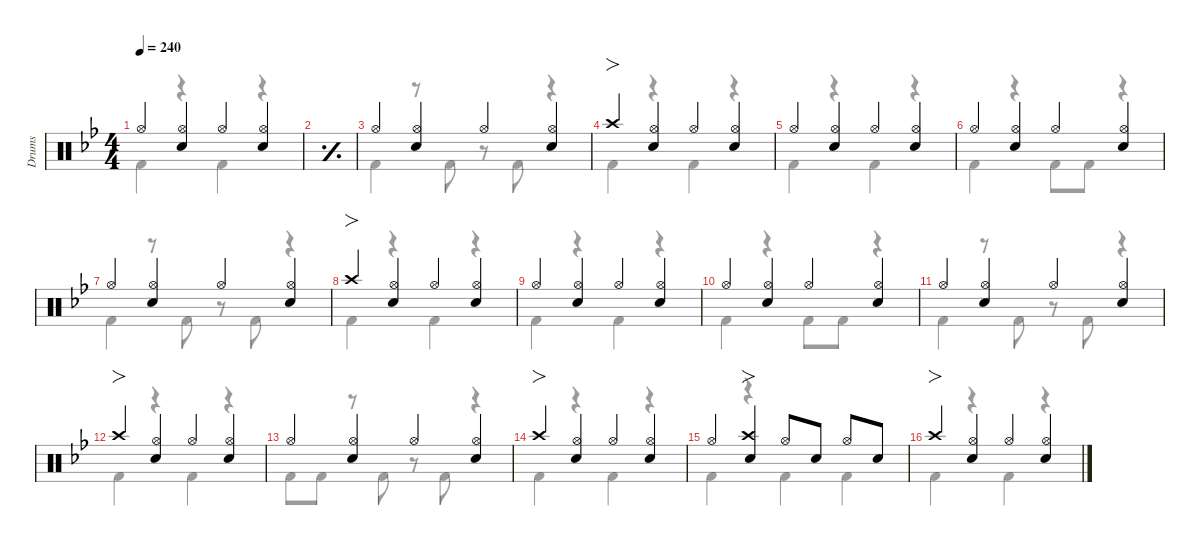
\defaultSystemsLayout 4
\hideDynamics
\bracketExtendMode nobrackets
\otherSystemsTrackNameOrientation horizontal
\track ("Drums" "Drums") {defaultSystemsLayout 4 instrument percussion}
\staff {score}
\articulation defaults
\voice
\ts (4 4)
\tempo 240
\clef neutral
\scale
0.976526
\ks bb "Hi-Hat (open)"{acc forcenatural}.4{dy f beam Up}
("Hi-Hat (open)"{acc forcenatural} "Snare (hit) 2"{acc forcenatural}).4{beam Up} "Hi-Hat (open)"{acc forcenatural}.4{beam Up} ("Hi-Hat (open)"{acc forcenatural} "Snare (hit) 2"{acc forcenatural}).4{beam Up} |
\simile simple
\scale
0.976526 |
\simile none
\scale
0.976526 "Hi-Hat (open)"{acc forcenatural}.4{beam Up} ("Hi-Hat (open)"{acc forcenatural} "Snare (hit) 2"{acc forcenatural}).4{beam Up} "Hi-Hat (open)"{acc forcenatural}.4{beam Up} ("Hi-Hat (open)"{acc forcenatural} "Snare (hit) 2"{acc forcenatural}).4{beam Up} |
\scale
1.07042 "Crash high (hit)"{acc forcenatural}.4{fo beam Up} ("Hi-Hat (open)"{acc forcenatural} "Snare (hit) 2"{acc forcenatural}).4{beam Up} "Hi-Hat (open)"{acc forcenatural}.4{beam Up} ("Hi-Hat (open)"{acc forcenatural} "Snare (hit) 2"{acc forcenatural}).4{beam Up} |
\scale
0.976526 "Hi-Hat (open)"{acc forcenatural}.4{beam Up} ("Hi-Hat (open)"{acc forcenatural} "Snare (hit) 2"{acc forcenatural}).4{beam Up} "Hi-Hat (open)"{acc forcenatural}.4{beam Up} ("Hi-Hat (open)"{acc forcenatural} "Snare (hit) 2"{acc forcenatural}).4{beam Up} |
\scale
0.976526 "Hi-Hat (open)"{acc forcenatural}.4{beam Up} ("Hi-Hat (open)"{acc forcenatural} "Snare (hit) 2"{acc forcenatural}).4{beam Up} "Hi-Hat (open)"{acc forcenatural}.4{beam Up} ("Hi-Hat (open)"{acc forcenatural} "Snare (hit) 2"{acc forcenatural}).4{beam Up} |
\scale
0.976526 "Hi-Hat (open)"{acc forcenatural}.4{beam Up} ("Hi-Hat (open)"{acc forcenatural} "Snare (hit) 2"{acc forcenatural}).4{beam Up} "Hi-Hat (open)"{acc forcenatural}.4{beam Up} ("Hi-Hat (open)"{acc forcenatural} "Snare (hit) 2"{acc forcenatural}).4{beam Up} |
\scale
1.07042 "Crash high (hit)"{acc forcenatural}.4{fo beam Up} ("Hi-Hat (open)"{acc forcenatural} "Snare (hit) 2"{acc forcenatural}).4{beam Up} "Hi-Hat (open)"{acc forcenatural}.4{beam Up} ("Hi-Hat (open)"{acc forcenatural} "Snare (hit) 2"{acc forcenatural}).4{beam Up} |
\scale
0.976526 "Hi-Hat (open)"{acc forcenatural}.4{beam Up} ("Hi-Hat (open)"{acc forcenatural} "Snare (hit) 2"{acc forcenatural}).4{beam Up} "Hi-Hat (open)"{acc forcenatural}.4{beam Up} ("Hi-Hat (open)"{acc forcenatural} "Snare (hit) 2"{acc forcenatural}).4{beam Up} |
\scale
0.976526 "Hi-Hat (open)"{acc forcenatural}.4{beam Up} ("Hi-Hat (open)"{acc forcenatural} "Snare (hit) 2"{acc forcenatural}).4{beam Up} "Hi-Hat (open)"{acc forcenatural}.4{beam Up} ("Hi-Hat (open)"{acc forcenatural} "Snare (hit) 2"{acc forcenatural}).4{beam Up} |
\scale
0.976526 "Hi-Hat (open)"{acc forcenatural}.4{beam Up} ("Hi-Hat (open)"{acc forcenatural} "Snare (hit) 2"{acc forcenatural}).4{beam Up} "Hi-Hat (open)"{acc forcenatural}.4{beam Up} ("Hi-Hat (open)"{acc forcenatural} "Snare (hit) 2"{acc forcenatural}).4{beam Up} |
\scale
1.07042 "Crash high (hit)"{acc forcenatural}.4{fo beam Up} ("Hi-Hat (open)"{acc forcenatural} "Snare (hit) 2"{acc forcenatural}).4{beam Up} "Hi-Hat (open)"{acc forcenatural}.4{beam Up} ("Hi-Hat (open)"{acc forcenatural} "Snare (hit) 2"{acc forcenatural}).4{beam Up} |
\scale
0.976526 "Hi-Hat (open)"{acc forcenatural}.4{beam Up} ("Hi-Hat (open)"{acc forcenatural} "Snare (hit) 2"{acc forcenatural}).4{beam Up} "Hi-Hat (open)"{acc forcenatural}.4{beam Up} ("Hi-Hat (open)"{acc forcenatural} "Snare (hit) 2"{acc forcenatural}).4{beam Up} |
\scale
0.976526 "Crash high (hit)"{acc forcenatural}.4{fo beam Up} ("Hi-Hat (open)"{acc forcenatural} "Snare (hit) 2"{acc forcenatural}).4{beam Up} "Hi-Hat (open)"{acc forcenatural}.4{beam Up} ("Hi-Hat (open)"{acc forcenatural} "Snare (hit) 2"{acc forcenatural}).4{beam Up} |
\scale
0.976526 "Hi-Hat (open)"{acc forcenatural}.4{beam Up} ("Crash high (hit)"{acc forcenatural} "Snare (hit) 2"{acc forcenatural}).4{fo beam Up} "Hi-Hat (open)"{acc forcenatural}.8{beam Up} "Snare (hit) 2"{acc forcenatural}.8{beam Up} "Hi-Hat (open)"{acc forcenatural}.8{beam Up} "Snare (hit) 2"{acc forcenatural}.8{beam Up} |
\scale
1.07042 "Crash high (hit)"{acc forcenatural}.4{fo beam Up} ("Hi-Hat (open)"{acc forcenatural} "Snare (hit) 2"{acc forcenatural}).4{beam Up} "Hi-Hat (open)"{acc forcenatural}.4{beam Up} ("Hi-Hat (open)"{acc forcenatural} "Snare (hit) 2"{acc forcenatural}).4{beam Up}
\voice
\clef neutral
\ottava regular
\simile none
\scale
0.976526
\ks bb "Kick (hit) 2"{acc forcenatural}.4{dy f beam Down}
r.4{beam Down} "Kick (hit) 2"{acc forcenatural}.4{beam Down} r.4{beam Down} |
\simile simple
\scale
0.976526 |
\simile none
\scale
0.976526 "Kick (hit) 2"{acc forcenatural}.4{beam Down} r.8{beam Down} "Kick (hit) 2"{acc forcenatural}.8{beam Down} r.8{beam Down} "Kick (hit) 2"{acc forcenatural}.8{beam Down} r.4{beam Down} |
\scale
1.07042 "Kick (hit) 2"{acc forcenatural}.4{beam Down} r.4{beam Down} "Kick (hit) 2"{acc forcenatural}.4{beam Down} r.4{beam Down} |
\scale
0.976526 "Kick (hit) 2"{acc forcenatural}.4{beam Down} r.4{beam Down} "Kick (hit) 2"{acc forcenatural}.4{beam Down} r.4{beam Down} |
\scale
0.976526 "Kick (hit) 2"{acc forcenatural}.4{beam Down} r.4{beam Down} "Kick (hit) 2"{acc forcenatural}.8{beam Down} "Kick (hit) 2"{acc forcenatural}.8{beam Down} r.4{beam Down} |
\scale
0.976526 "Kick (hit) 2"{acc forcenatural}.4{beam Down} r.8{beam Down} "Kick (hit) 2"{acc forcenatural}.8{beam Down} r.8{beam Down} "Kick (hit) 2"{acc forcenatural}.8{beam Down} r.4{beam Down} |
\scale
1.07042 "Kick (hit) 2"{acc forcenatural}.4{beam Down} r.4{beam Down} "Kick (hit) 2"{acc forcenatural}.4{beam Down} r.4{beam Down} |
\scale
0.976526 "Kick (hit) 2"{acc forcenatural}.4{beam Down} r.4{beam Down} "Kick (hit) 2"{acc forcenatural}.4{beam Down} r.4{beam Down} |
\scale
0.976526 "Kick (hit) 2"{acc forcenatural}.4{beam Down} r.4{beam Down} "Kick (hit) 2"{acc forcenatural}.8{beam Down} "Kick (hit) 2"{acc forcenatural}.8{beam Down} r.4{beam Down} |
\scale
0.976526 "Kick (hit) 2"{acc forcenatural}.4{beam Down} r.8{beam Down} "Kick (hit) 2"{acc forcenatural}.8{beam Down} r.8{beam Down} "Kick (hit) 2"{acc forcenatural}.8{beam Down} r.4{beam Down} |
\scale
1.07042 "Kick (hit) 2"{acc forcenatural}.4{beam Down} r.4{beam Down} "Kick (hit) 2"{acc forcenatural}.4{beam Down} r.4{beam Down} |
\scale
0.976526 "Kick (hit) 2"{acc forcenatural}.8{beam Down} "Kick (hit) 2"{acc forcenatural}.8{beam Down} r.8{beam Down} "Kick (hit) 2"{acc forcenatural}.8{beam Down} r.8{beam Down} "Kick (hit) 2"{acc forcenatural}.8{beam Down} r.4{beam Down} |
\scale
0.976526 "Kick (hit) 2"{acc forcenatural}.4{beam Down} r.4{beam Down} "Kick (hit) 2"{acc forcenatural}.4{beam Down} r.4{beam Down} |
\scale
0.976526 "Kick (hit) 2"{acc forcenatural}.4{beam Down} r.4{beam Down} "Kick (hit) 2"{acc forcenatural}.4{beam Down} "Kick (hit) 2"{acc forcenatural}.4{beam Down} |
\scale
1.07042 "Kick (hit) 2"{acc forcenatural}.4{beam Down} r.4{beam Down} "Kick (hit) 2"{acc forcenatural}.4{beam Down} r.4{beam Down}
